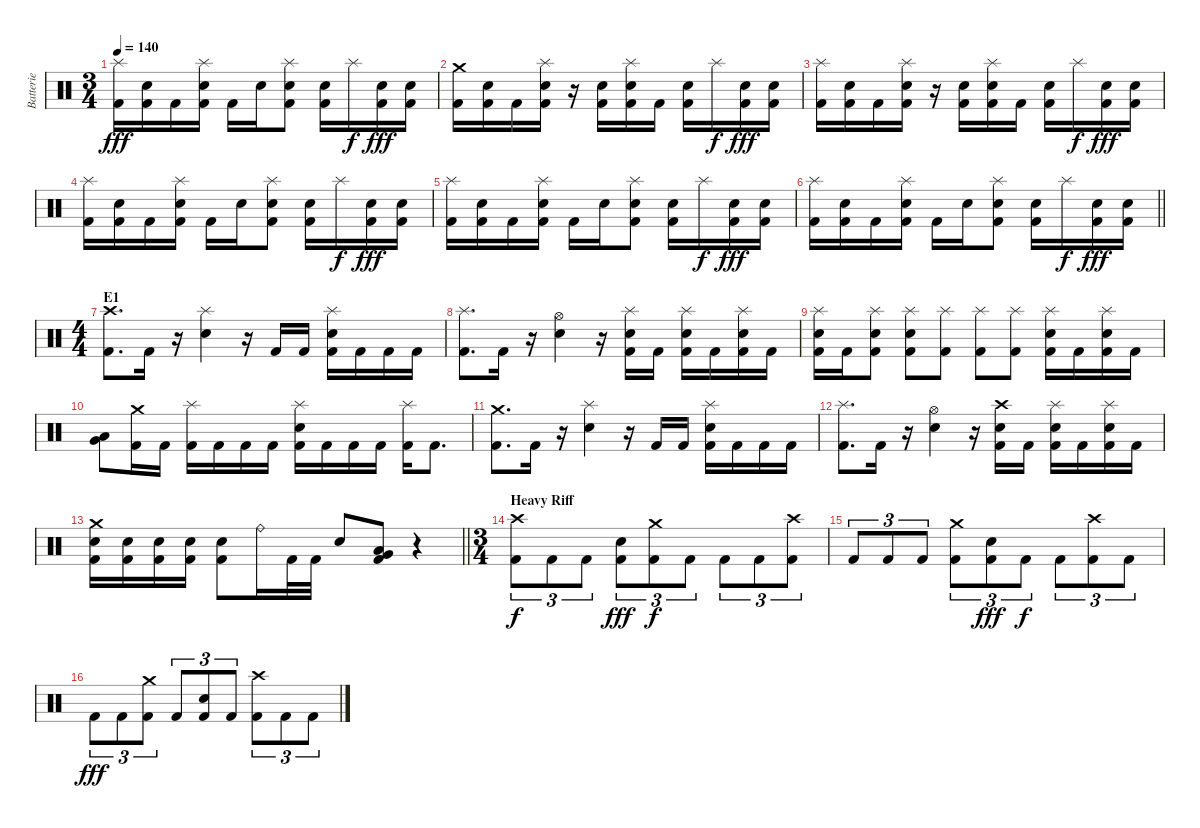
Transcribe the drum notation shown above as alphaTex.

\track ("Batterie" "Batterie") {instrument percussion}
\staff {score}
\articulation defaults
\ts (3 4)
\tempo 140
\clef neutral
\ks c
("Splash (hit)" "Kick (hit) 2").16{dy fff} ("Electric Snare (hit)" "Kick (hit) 2").16 "Kick (hit) 2".16 ("Splash (hit)" "Electric Snare (hit)" "Kick (hit) 2").16 "Kick (hit) 2".16 "Electric Snare (hit)".16 ("Splash (hit)" "Electric Snare (hit)" "Kick (hit) 2").8 ("Electric Snare (hit)" "Kick (hit) 2").16 "Splash (hit)".16{dy f} ("Electric Snare (hit)" "Kick (hit) 2").16{dy fff} ("Electric Snare (hit)" "Kick (hit) 2").16 |
("Crash medium (hit)" "Kick (hit) 2").16 ("Electric Snare (hit)" "Kick (hit) 2").16 "Kick (hit) 2".16 ("Splash (hit)" "Electric Snare (hit)" "Kick (hit) 2").16 r.16 ("Electric Snare (hit)" "Kick (hit) 2").16 ("Splash (hit)" "Electric Snare (hit)" "Kick (hit) 2").16 "Kick (hit) 2".16 ("Electric Snare (hit)" "Kick (hit) 2").16 "Splash (hit)".16{dy f} ("Electric Snare (hit)" "Kick (hit) 2").16{dy fff} ("Electric Snare (hit)" "Kick (hit) 2").16 |
("Splash (hit)" "Kick (hit) 2").16 ("Electric Snare (hit)" "Kick (hit) 2").16 "Kick (hit) 2".16 ("Splash (hit)" "Electric Snare (hit)" "Kick (hit) 2").16 r.16 ("Electric Snare (hit)" "Kick (hit) 2").16 ("Splash (hit)" "Electric Snare (hit)" "Kick (hit) 2").16 "Kick (hit) 2".16 ("Electric Snare (hit)" "Kick (hit) 2").16 "Splash (hit)".16{dy f} ("Electric Snare (hit)" "Kick (hit) 2").16{dy fff} ("Electric Snare (hit)" "Kick (hit) 2").16 |
("Splash (hit)" "Kick (hit) 2").16 ("Electric Snare (hit)" "Kick (hit) 2").16 "Kick (hit) 2".16 ("Splash (hit)" "Electric Snare (hit)" "Kick (hit) 2").16 "Kick (hit) 2".16 "Electric Snare (hit)".16 ("Splash (hit)" "Electric Snare (hit)" "Kick (hit) 2").8 ("Electric Snare (hit)" "Kick (hit) 2").16 "Splash (hit)".16{dy f} ("Electric Snare (hit)" "Kick (hit) 2").16{dy fff} ("Electric Snare (hit)" "Kick (hit) 2").16 |
("Splash (hit)" "Kick (hit) 2").16 ("Electric Snare (hit)" "Kick (hit) 2").16 "Kick (hit) 2".16 ("Splash (hit)" "Electric Snare (hit)" "Kick (hit) 2").16 "Kick (hit) 2".16 "Electric Snare (hit)".16 ("Splash (hit)" "Electric Snare (hit)" "Kick (hit) 2").8 ("Electric Snare (hit)" "Kick (hit) 2").16 "Splash (hit)".16{dy f} ("Electric Snare (hit)" "Kick (hit) 2").16{dy fff} ("Electric Snare (hit)" "Kick (hit) 2").16 |
\barLineRight lightlight
("Splash (hit)" "Kick (hit) 2").16 ("Electric Snare (hit)" "Kick (hit) 2").16 "Kick (hit) 2".16 ("Splash (hit)" "Electric Snare (hit)" "Kick (hit) 2").16 "Kick (hit) 2".16 "Electric Snare (hit)".16 ("Splash (hit)" "Electric Snare (hit)" "Kick (hit) 2").8 ("Electric Snare (hit)" "Kick (hit) 2").16 "Splash (hit)".16{dy f} ("Electric Snare (hit)" "Kick (hit) 2").16{dy fff} ("Electric Snare (hit)" "Kick (hit) 2").16 |
\ts (4 4)
\section ("" "E1")
("Crash high (hit)" "Kick (hit) 2").8{d} "Kick (hit) 2".16 r.16 ("Splash (hit)" "Electric Snare (hit)").4 r.16 "Kick (hit) 2".16 "Kick (hit) 2".16 ("Splash (hit)" "Electric Snare (hit)" "Kick (hit) 2").16 "Kick (hit) 2".16 "Kick (hit) 2".16 "Kick (hit) 2".16 |
("Splash (hit)" "Kick (hit) 2").8{d} "Kick (hit) 2".16 r.16 ("Hi-Hat (open)" "Electric Snare (hit)").4 r.16 ("Splash (hit)" "Electric Snare (hit)" "Kick (hit) 2").16 "Kick (hit) 2".16 ("Splash (hit)" "Electric Snare (hit)" "Kick (hit) 2").16 "Kick (hit) 2".16 ("Splash (hit)" "Electric Snare (hit)" "Kick (hit) 2").16 "Kick (hit) 2".16 |
("Splash (hit)" "Electric Snare (hit)" "Kick (hit) 2").16 "Kick (hit) 2".16 ("Splash (hit)" "Electric Snare (hit)" "Kick (hit) 2").8 ("Splash (hit)" "Electric Snare (hit)" "Kick (hit) 2").8 ("Splash (hit)" "Kick (hit) 2").8 ("Splash (hit)" "Kick (hit) 2").8 ("Splash (hit)" "Kick (hit) 2").8 ("Splash (hit)" "Electric Snare (hit)" "Kick (hit) 2").16 "Kick (hit) 2".16 ("Splash (hit)" "Electric Snare (hit)" "Kick (hit) 2").16 "Kick (hit) 2".16 |
("Very Low Tom (hit)" "Low Floor Tom (hit)").8 ("Crash medium (hit)" "Kick (hit) 2").16 "Kick (hit) 2".16 ("Splash (hit)" "Kick (hit) 2").16 "Kick (hit) 2".16 "Kick (hit) 2".16 "Kick (hit) 2".16 ("Splash (hit)" "Electric Snare (hit)" "Kick (hit) 2").16 "Kick (hit) 2".16 "Kick (hit) 2".16 "Kick (hit) 2".16 ("Splash (hit)" "Kick (hit) 2").16 "Kick (hit) 2".8{d} |
("Crash medium (hit)" "Kick (hit) 2").8{d} "Kick (hit) 2".16 r.16 ("Splash (hit)" "Electric Snare (hit)").4 r.16 "Kick (hit) 2".16 "Kick (hit) 2".16 ("Splash (hit)" "Electric Snare (hit)" "Kick (hit) 2").16 "Kick (hit) 2".16 "Kick (hit) 2".16 "Kick (hit) 2".16 |
("Splash (hit)" "Kick (hit) 2").8{d} "Kick (hit) 2".16 r.16 ("Hi-Hat (open)" "Electric Snare (hit)").4 r.16 ("Crash high (hit)" "Electric Snare (hit)" "Kick (hit) 2").16 "Kick (hit) 2".16 ("Splash (hit)" "Electric Snare (hit)" "Kick (hit) 2").16 "Kick (hit) 2".16 ("Splash (hit)" "Electric Snare (hit)" "Kick (hit) 2").16 "Kick (hit) 2".16 |
\barLineRight lightlight
("Crash medium (hit)" "Electric Snare (hit)" "Kick (hit) 2").16 ("Electric Snare (hit)" "Kick (hit) 2").16 ("Electric Snare (hit)" "Kick (hit) 2").16 ("Electric Snare (hit)" "Kick (hit) 2").16 ("Electric Snare (hit)" "Kick (hit) 2").8 "Ride (bell)".16 "Kick (hit) 2".32 "Kick (hit) 2".32 "Electric Snare (hit)".8 ("Kick (hit) 2" "Very Low Tom (hit)" "Low Floor Tom (hit)").8 r.4 |
\ts (3 4)
\section ("" "Heavy Riff")
("Crash high (hit)" "Kick (hit) 2").8{tu (3 2) dy f} "Kick (hit) 2".8{tu (3 2)} "Kick (hit) 2".8{tu (3 2)} ("Electric Snare (hit)" "Kick (hit) 2").8{tu (3 2) dy fff} ("Crash medium (hit)" "Kick (hit) 2").8{tu (3 2) dy f} "Kick (hit) 2".8{tu (3 2)} "Kick (hit) 2".8{tu (3 2)} "Kick (hit) 2".8{tu (3 2)} ("Crash high (hit)" "Kick (hit) 2").8{tu (3 2)} |
"Kick (hit) 2".8{tu (3 2)} "Kick (hit) 2".8{tu (3 2)} "Kick (hit) 2".8{tu (3 2)} ("Crash medium (hit)" "Kick (hit) 2").8{tu (3 2)} ("Electric Snare (hit)" "Kick (hit) 2").8{tu (3 2) dy fff} "Kick (hit) 2".8{tu (3 2) dy f} "Kick (hit) 2".8{tu (3 2)} ("Crash high (hit)" "Kick (hit) 2").8{tu (3 2)} "Kick (hit) 2".8{tu (3 2)} |
"Kick (hit) 2".8{tu (3 2) dy fff} "Kick (hit) 2".8{tu (3 2)} ("Crash medium (hit)" "Kick (hit) 2").8{tu (3 2)} "Kick (hit) 2".8{tu (3 2)} ("Electric Snare (hit)" "Kick (hit) 2").8{tu (3 2)} "Kick (hit) 2".8{tu (3 2)} ("Crash high (hit)" "Kick (hit) 2").8{tu (3 2)} "Kick (hit) 2".8{tu (3 2)} "Kick (hit) 2".8{tu (3 2)}
